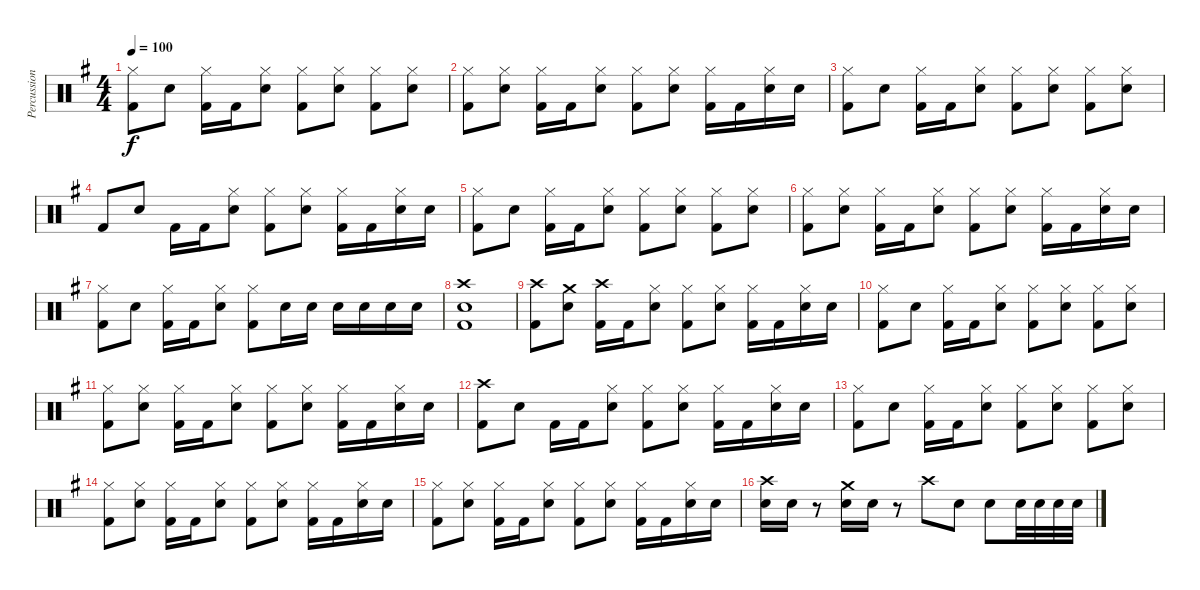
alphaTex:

\track ("Percussion" "Percussion") {instrument percussion}
\staff {score}
\articulation defaults
\ts (4 4)
\tempo 100
\clef neutral
\ks g
("Hi-Hat (closed)" "Kick (hit) 2").8{dy f} "Snare (hit) 2".8 ("Hi-Hat (closed)" "Kick (hit) 2").16 "Kick (hit) 2".16 ("Hi-Hat (closed)" "Snare (hit) 2").8 ("Hi-Hat (closed)" "Kick (hit) 2").8 ("Hi-Hat (closed)" "Snare (hit) 2").8 ("Hi-Hat (closed)" "Kick (hit) 2").8 ("Hi-Hat (closed)" "Snare (hit) 2").8 |
("Hi-Hat (closed)" "Kick (hit) 2").8 ("Hi-Hat (closed)" "Snare (hit) 2").8 ("Hi-Hat (closed)" "Kick (hit) 2").16 "Kick (hit) 2".16 ("Hi-Hat (closed)" "Snare (hit) 2").8 ("Hi-Hat (closed)" "Kick (hit) 2").8 ("Hi-Hat (closed)" "Snare (hit) 2").8 ("Hi-Hat (closed)" "Kick (hit) 2").16 "Kick (hit) 2".16 ("Hi-Hat (closed)" "Snare (hit) 2").16 "Snare (hit) 2".16 |
("Hi-Hat (closed)" "Kick (hit) 2").8 "Snare (hit) 2".8 ("Hi-Hat (closed)" "Kick (hit) 2").16 "Kick (hit) 2".16 ("Hi-Hat (closed)" "Snare (hit) 2").8 ("Hi-Hat (closed)" "Kick (hit) 2").8 ("Hi-Hat (closed)" "Snare (hit) 2").8 ("Hi-Hat (closed)" "Kick (hit) 2").8 ("Hi-Hat (closed)" "Snare (hit) 2").8 |
"Kick (hit) 2".8 "Snare (hit) 2".8 "Kick (hit) 2".16 "Kick (hit) 2".16 ("Hi-Hat (closed)" "Snare (hit) 2").8 ("Hi-Hat (closed)" "Kick (hit) 2").8 ("Hi-Hat (closed)" "Snare (hit) 2").8 ("Hi-Hat (closed)" "Kick (hit) 2").16 "Kick (hit) 2".16 ("Hi-Hat (closed)" "Snare (hit) 2").16 "Snare (hit) 2".16 |
("Hi-Hat (closed)" "Kick (hit) 2").8 "Snare (hit) 2".8 ("Hi-Hat (closed)" "Kick (hit) 2").16 "Kick (hit) 2".16 ("Hi-Hat (closed)" "Snare (hit) 2").8 ("Hi-Hat (closed)" "Kick (hit) 2").8 ("Hi-Hat (closed)" "Snare (hit) 2").8 ("Hi-Hat (closed)" "Kick (hit) 2").8 ("Hi-Hat (closed)" "Snare (hit) 2").8 |
("Hi-Hat (closed)" "Kick (hit) 2").8 ("Hi-Hat (closed)" "Snare (hit) 2").8 ("Hi-Hat (closed)" "Kick (hit) 2").16 "Kick (hit) 2".16 ("Hi-Hat (closed)" "Snare (hit) 2").8 ("Hi-Hat (closed)" "Kick (hit) 2").8 ("Hi-Hat (closed)" "Snare (hit) 2").8 ("Hi-Hat (closed)" "Kick (hit) 2").16 "Kick (hit) 2".16 ("Hi-Hat (closed)" "Snare (hit) 2").16 "Snare (hit) 2".16 |
("Hi-Hat (closed)" "Kick (hit) 2").8 "Snare (hit) 2".8 ("Hi-Hat (closed)" "Kick (hit) 2").16 "Kick (hit) 2".16 ("Hi-Hat (closed)" "Snare (hit) 2").8 ("Hi-Hat (closed)" "Kick (hit) 2").8 "Snare (hit) 2".16 "Snare (hit) 2".16 "Snare (hit) 2".16 "Snare (hit) 2".16 "Snare (hit) 2".16 "Snare (hit) 2".16 |
("Crash high (hit)" "Snare (hit) 2" "Kick (hit) 2").1 |
("Crash high (hit)" "Kick (hit) 2").8 ("Crash medium (hit)" "Snare (hit) 2").8 ("Crash high (hit)" "Kick (hit) 2").16 "Kick (hit) 2".16 ("Hi-Hat (closed)" "Snare (hit) 2").8 ("Hi-Hat (closed)" "Kick (hit) 2").8 ("Hi-Hat (closed)" "Snare (hit) 2").8 ("Hi-Hat (closed)" "Kick (hit) 2").16 "Kick (hit) 2".16 ("Hi-Hat (closed)" "Snare (hit) 2").16 "Snare (hit) 2".16 |
("Hi-Hat (closed)" "Kick (hit) 2").8 "Snare (hit) 2".8 ("Hi-Hat (closed)" "Kick (hit) 2").16 "Kick (hit) 2".16 ("Hi-Hat (closed)" "Snare (hit) 2").8 ("Hi-Hat (closed)" "Kick (hit) 2").8 ("Hi-Hat (closed)" "Snare (hit) 2").8 ("Hi-Hat (closed)" "Kick (hit) 2").8 ("Hi-Hat (closed)" "Snare (hit) 2").8 |
("Hi-Hat (closed)" "Kick (hit) 2").8 ("Hi-Hat (closed)" "Snare (hit) 2").8 ("Hi-Hat (closed)" "Kick (hit) 2").16 "Kick (hit) 2".16 ("Hi-Hat (closed)" "Snare (hit) 2").8 ("Hi-Hat (closed)" "Kick (hit) 2").8 ("Hi-Hat (closed)" "Snare (hit) 2").8 ("Hi-Hat (closed)" "Kick (hit) 2").16 "Kick (hit) 2".16 ("Hi-Hat (closed)" "Snare (hit) 2").16 "Snare (hit) 2".16 |
("Crash high (hit)" "Kick (hit) 2").8 "Snare (hit) 2".8 "Kick (hit) 2".16 "Kick (hit) 2".16 ("Hi-Hat (closed)" "Snare (hit) 2").8 ("Hi-Hat (closed)" "Kick (hit) 2").8 ("Hi-Hat (closed)" "Snare (hit) 2").8 ("Hi-Hat (closed)" "Kick (hit) 2").16 "Kick (hit) 2".16 ("Hi-Hat (closed)" "Snare (hit) 2").16 "Snare (hit) 2".16 |
("Hi-Hat (closed)" "Kick (hit) 2").8 "Snare (hit) 2".8 ("Hi-Hat (closed)" "Kick (hit) 2").16 "Kick (hit) 2".16 ("Hi-Hat (closed)" "Snare (hit) 2").8 ("Hi-Hat (closed)" "Kick (hit) 2").8 ("Hi-Hat (closed)" "Snare (hit) 2").8 ("Hi-Hat (closed)" "Kick (hit) 2").8 ("Hi-Hat (closed)" "Snare (hit) 2").8 |
("Hi-Hat (closed)" "Kick (hit) 2").8 ("Hi-Hat (closed)" "Snare (hit) 2").8 ("Hi-Hat (closed)" "Kick (hit) 2").16 "Kick (hit) 2".16 ("Hi-Hat (closed)" "Snare (hit) 2").8 ("Hi-Hat (closed)" "Kick (hit) 2").8 ("Hi-Hat (closed)" "Snare (hit) 2").8 ("Hi-Hat (closed)" "Kick (hit) 2").16 "Kick (hit) 2".16 ("Hi-Hat (closed)" "Snare (hit) 2").16 "Snare (hit) 2".16 |
("Hi-Hat (closed)" "Kick (hit) 2").8 ("Hi-Hat (closed)" "Snare (hit) 2").8 ("Hi-Hat (closed)" "Kick (hit) 2").16 "Kick (hit) 2".16 ("Hi-Hat (closed)" "Snare (hit) 2").8 ("Hi-Hat (closed)" "Kick (hit) 2").8 ("Hi-Hat (closed)" "Snare (hit) 2").8 ("Hi-Hat (closed)" "Kick (hit) 2").16 "Kick (hit) 2".16 ("Hi-Hat (closed)" "Snare (hit) 2").16 "Snare (hit) 2".16 |
("Crash high (hit)" "Snare (hit) 2").16 "Snare (hit) 2".16 r.8 ("Crash medium (hit)" "Snare (hit) 2").16 "Snare (hit) 2".16 r.8 "Crash high (hit)".8 "Snare (hit) 2".8 "Snare (hit) 2".8 "Snare (hit) 2".32 "Snare (hit) 2".32 "Snare (hit) 2".32 "Snare (hit) 2".32
